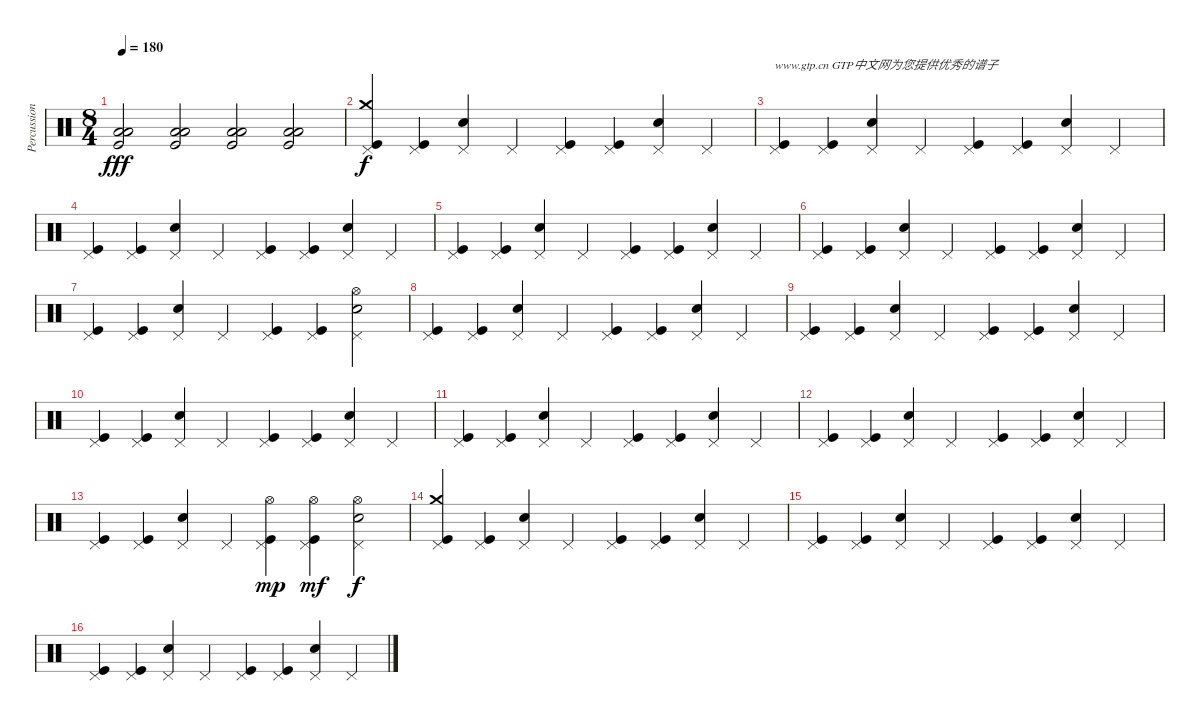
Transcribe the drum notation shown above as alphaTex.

\track ("Percussion" "Percussion") {instrument percussion}
\staff {score}
\articulation defaults
\ts (8 4)
\tempo 180
\clef neutral
\ks c
("Low Tom (hit)" "Low Tom (hit)" "Kick (hit)").2{dy fff} ("Low Tom (hit)" "Low Tom (hit)" "Kick (hit)").2 ("Low Tom (hit)" "Low Tom (hit)" "Kick (hit)").2 ("Low Tom (hit)" "Low Tom (hit)" "Kick (hit)").2 |
("Crash medium (hit)" "Pedal Hi-Hat (hit)" "Kick (hit)").4{dy f} ("Pedal Hi-Hat (hit)" "Kick (hit)").4 ("Pedal Hi-Hat (hit)" "Electric Snare (hit)").4 "Pedal Hi-Hat (hit)".4 ("Pedal Hi-Hat (hit)" "Kick (hit)").4 ("Pedal Hi-Hat (hit)" "Kick (hit)").4 ("Pedal Hi-Hat (hit)" "Electric Snare (hit)").4 "Pedal Hi-Hat (hit)".4 |
("Pedal Hi-Hat (hit)" "Kick (hit)").4{txt "www.gtp.cn GTP中文网为您提供优秀的谱子"} ("Pedal Hi-Hat (hit)" "Kick (hit)").4 ("Pedal Hi-Hat (hit)" "Electric Snare (hit)").4 "Pedal Hi-Hat (hit)".4 ("Pedal Hi-Hat (hit)" "Kick (hit)").4 ("Pedal Hi-Hat (hit)" "Kick (hit)").4 ("Pedal Hi-Hat (hit)" "Electric Snare (hit)").4 "Pedal Hi-Hat (hit)".4 |
("Pedal Hi-Hat (hit)" "Kick (hit)").4 ("Pedal Hi-Hat (hit)" "Kick (hit)").4 ("Pedal Hi-Hat (hit)" "Electric Snare (hit)").4 "Pedal Hi-Hat (hit)".4 ("Pedal Hi-Hat (hit)" "Kick (hit)").4 ("Pedal Hi-Hat (hit)" "Kick (hit)").4 ("Pedal Hi-Hat (hit)" "Electric Snare (hit)").4 "Pedal Hi-Hat (hit)".4 |
("Pedal Hi-Hat (hit)" "Kick (hit)").4 ("Pedal Hi-Hat (hit)" "Kick (hit)").4 ("Pedal Hi-Hat (hit)" "Electric Snare (hit)").4 "Pedal Hi-Hat (hit)".4 ("Pedal Hi-Hat (hit)" "Kick (hit)").4 ("Pedal Hi-Hat (hit)" "Kick (hit)").4 ("Pedal Hi-Hat (hit)" "Electric Snare (hit)").4 "Pedal Hi-Hat (hit)".4 |
("Pedal Hi-Hat (hit)" "Kick (hit)").4 ("Pedal Hi-Hat (hit)" "Kick (hit)").4 ("Pedal Hi-Hat (hit)" "Electric Snare (hit)").4 "Pedal Hi-Hat (hit)".4 ("Pedal Hi-Hat (hit)" "Kick (hit)").4 ("Pedal Hi-Hat (hit)" "Kick (hit)").4 ("Pedal Hi-Hat (hit)" "Electric Snare (hit)").4 "Pedal Hi-Hat (hit)".4 |
("Pedal Hi-Hat (hit)" "Kick (hit)").4 ("Pedal Hi-Hat (hit)" "Kick (hit)").4 ("Pedal Hi-Hat (hit)" "Electric Snare (hit)").4 "Pedal Hi-Hat (hit)".4 ("Pedal Hi-Hat (hit)" "Kick (hit)").4 ("Pedal Hi-Hat (hit)" "Kick (hit)").4 ("Pedal Hi-Hat (hit)" "Electric Snare (hit)" "Hi-Hat (open)").2 |
("Pedal Hi-Hat (hit)" "Kick (hit)").4 ("Pedal Hi-Hat (hit)" "Kick (hit)").4 ("Pedal Hi-Hat (hit)" "Electric Snare (hit)").4 "Pedal Hi-Hat (hit)".4 ("Pedal Hi-Hat (hit)" "Kick (hit)").4 ("Pedal Hi-Hat (hit)" "Kick (hit)").4 ("Pedal Hi-Hat (hit)" "Electric Snare (hit)").4 "Pedal Hi-Hat (hit)".4 |
("Pedal Hi-Hat (hit)" "Kick (hit)").4 ("Pedal Hi-Hat (hit)" "Kick (hit)").4 ("Pedal Hi-Hat (hit)" "Electric Snare (hit)").4 "Pedal Hi-Hat (hit)".4 ("Pedal Hi-Hat (hit)" "Kick (hit)").4 ("Pedal Hi-Hat (hit)" "Kick (hit)").4 ("Pedal Hi-Hat (hit)" "Electric Snare (hit)").4 "Pedal Hi-Hat (hit)".4 |
("Pedal Hi-Hat (hit)" "Kick (hit)").4 ("Pedal Hi-Hat (hit)" "Kick (hit)").4 ("Pedal Hi-Hat (hit)" "Electric Snare (hit)").4 "Pedal Hi-Hat (hit)".4 ("Pedal Hi-Hat (hit)" "Kick (hit)").4 ("Pedal Hi-Hat (hit)" "Kick (hit)").4 ("Pedal Hi-Hat (hit)" "Electric Snare (hit)").4 "Pedal Hi-Hat (hit)".4 |
("Pedal Hi-Hat (hit)" "Kick (hit)").4 ("Pedal Hi-Hat (hit)" "Kick (hit)").4 ("Pedal Hi-Hat (hit)" "Electric Snare (hit)").4 "Pedal Hi-Hat (hit)".4 ("Pedal Hi-Hat (hit)" "Kick (hit)").4 ("Pedal Hi-Hat (hit)" "Kick (hit)").4 ("Pedal Hi-Hat (hit)" "Electric Snare (hit)").4 "Pedal Hi-Hat (hit)".4 |
("Pedal Hi-Hat (hit)" "Kick (hit)").4 ("Pedal Hi-Hat (hit)" "Kick (hit)").4 ("Pedal Hi-Hat (hit)" "Electric Snare (hit)").4 "Pedal Hi-Hat (hit)".4 ("Pedal Hi-Hat (hit)" "Kick (hit)").4 ("Pedal Hi-Hat (hit)" "Kick (hit)").4 ("Pedal Hi-Hat (hit)" "Electric Snare (hit)").4 "Pedal Hi-Hat (hit)".4 |
("Pedal Hi-Hat (hit)" "Kick (hit)").4 ("Pedal Hi-Hat (hit)" "Kick (hit)").4 ("Pedal Hi-Hat (hit)" "Electric Snare (hit)").4 "Pedal Hi-Hat (hit)".4 ("Pedal Hi-Hat (hit)" "Hi-Hat (open)" "Kick (hit)").4{dy mp} ("Pedal Hi-Hat (hit)" "Hi-Hat (open)" "Kick (hit)").4{dy mf} ("Pedal Hi-Hat (hit)" "Electric Snare (hit)" "Hi-Hat (open)").2{dy f} |
("Crash medium (hit)" "Pedal Hi-Hat (hit)" "Kick (hit)").4 ("Pedal Hi-Hat (hit)" "Kick (hit)").4 ("Pedal Hi-Hat (hit)" "Electric Snare (hit)").4 "Pedal Hi-Hat (hit)".4 ("Pedal Hi-Hat (hit)" "Kick (hit)").4 ("Pedal Hi-Hat (hit)" "Kick (hit)").4 ("Pedal Hi-Hat (hit)" "Electric Snare (hit)").4 "Pedal Hi-Hat (hit)".4 |
("Pedal Hi-Hat (hit)" "Kick (hit)").4 ("Pedal Hi-Hat (hit)" "Kick (hit)").4 ("Pedal Hi-Hat (hit)" "Electric Snare (hit)").4 "Pedal Hi-Hat (hit)".4 ("Pedal Hi-Hat (hit)" "Kick (hit)").4 ("Pedal Hi-Hat (hit)" "Kick (hit)").4 ("Pedal Hi-Hat (hit)" "Electric Snare (hit)").4 "Pedal Hi-Hat (hit)".4 |
("Pedal Hi-Hat (hit)" "Kick (hit)").4 ("Pedal Hi-Hat (hit)" "Kick (hit)").4 ("Pedal Hi-Hat (hit)" "Electric Snare (hit)").4 "Pedal Hi-Hat (hit)".4 ("Pedal Hi-Hat (hit)" "Kick (hit)").4 ("Pedal Hi-Hat (hit)" "Kick (hit)").4 ("Pedal Hi-Hat (hit)" "Electric Snare (hit)").4 "Pedal Hi-Hat (hit)".4
